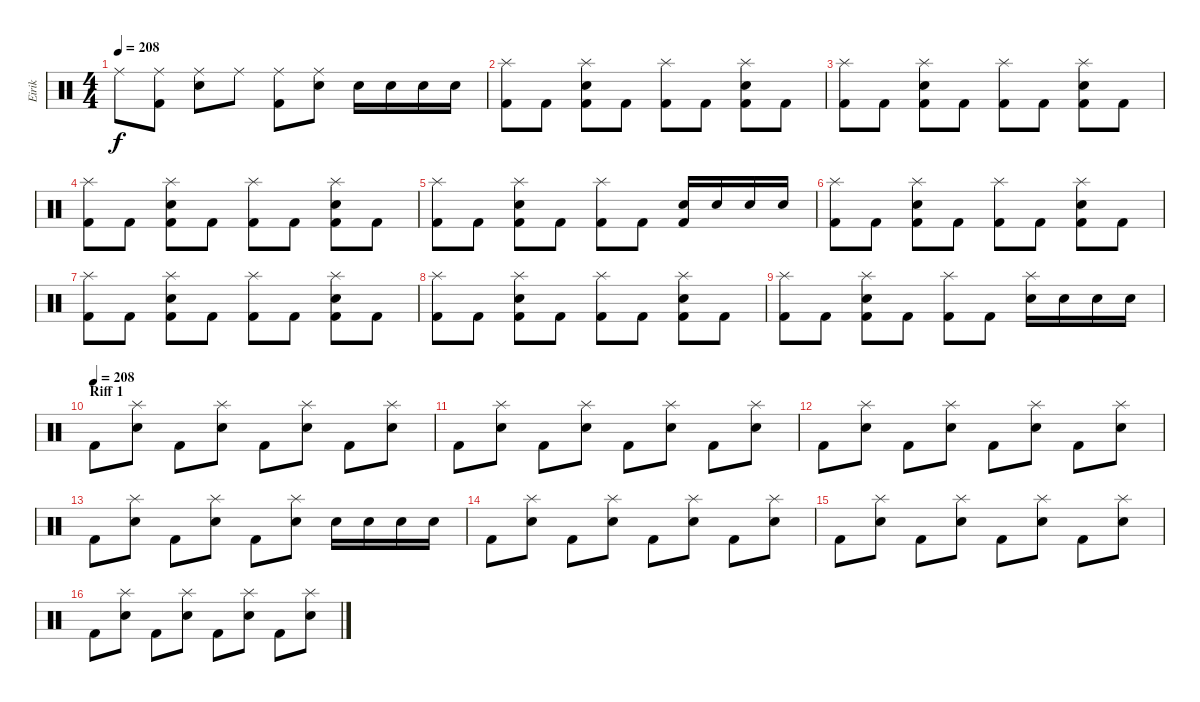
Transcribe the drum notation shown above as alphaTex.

\track ("Eirik" "Eirik") {instrument percussion}
\staff {score}
\articulation defaults
\ts (4 4)
\tempo 208
\clef neutral
\ks c "Ride (middle)".8{dy f}
("Ride (middle)" "Kick (hit) 2").8 ("Ride (middle)" "Snare (hit) 2").8 "Ride (middle)".8 ("Ride (middle)" "Kick (hit) 2").8 ("Ride (middle)" "Snare (hit) 2").8 "Snare (hit) 2".16 "Snare (hit) 2".16 "Snare (hit) 2".16 "Snare (hit) 2".16 |
("Splash (hit)" "Kick (hit) 2").8 "Kick (hit) 2".8 ("Splash (hit)" "Snare (hit) 2" "Kick (hit) 2").8 "Kick (hit) 2".8 ("Splash (hit)" "Kick (hit) 2").8 "Kick (hit) 2".8 ("Splash (hit)" "Snare (hit) 2" "Kick (hit) 2").8 "Kick (hit) 2".8 |
("Splash (hit)" "Kick (hit) 2").8 "Kick (hit) 2".8 ("Splash (hit)" "Snare (hit) 2" "Kick (hit) 2").8 "Kick (hit) 2".8 ("Splash (hit)" "Kick (hit) 2").8 "Kick (hit) 2".8 ("Splash (hit)" "Snare (hit) 2" "Kick (hit) 2").8 "Kick (hit) 2".8 |
("Splash (hit)" "Kick (hit) 2").8 "Kick (hit) 2".8 ("Splash (hit)" "Snare (hit) 2" "Kick (hit) 2").8 "Kick (hit) 2".8 ("Splash (hit)" "Kick (hit) 2").8 "Kick (hit) 2".8 ("Splash (hit)" "Snare (hit) 2" "Kick (hit) 2").8 "Kick (hit) 2".8 |
("Splash (hit)" "Kick (hit) 2").8 "Kick (hit) 2".8 ("Splash (hit)" "Snare (hit) 2" "Kick (hit) 2").8 "Kick (hit) 2".8 ("Splash (hit)" "Kick (hit) 2").8 "Kick (hit) 2".8 ("Snare (hit) 2" "Kick (hit) 2").16 "Snare (hit) 2".16 "Snare (hit) 2".16 "Snare (hit) 2".16 |
("Splash (hit)" "Kick (hit) 2").8 "Kick (hit) 2".8 ("Splash (hit)" "Snare (hit) 2" "Kick (hit) 2").8 "Kick (hit) 2".8 ("Splash (hit)" "Kick (hit) 2").8 "Kick (hit) 2".8 ("Splash (hit)" "Snare (hit) 2" "Kick (hit) 2").8 "Kick (hit) 2".8 |
("Splash (hit)" "Kick (hit) 2").8 "Kick (hit) 2".8 ("Splash (hit)" "Snare (hit) 2" "Kick (hit) 2").8 "Kick (hit) 2".8 ("Splash (hit)" "Kick (hit) 2").8 "Kick (hit) 2".8 ("Splash (hit)" "Snare (hit) 2" "Kick (hit) 2").8 "Kick (hit) 2".8 |
("Splash (hit)" "Kick (hit) 2").8 "Kick (hit) 2".8 ("Splash (hit)" "Snare (hit) 2" "Kick (hit) 2").8 "Kick (hit) 2".8 ("Splash (hit)" "Kick (hit) 2").8 "Kick (hit) 2".8 ("Splash (hit)" "Snare (hit) 2" "Kick (hit) 2").8 "Kick (hit) 2".8 |
("Splash (hit)" "Kick (hit) 2").8 "Kick (hit) 2".8 ("Splash (hit)" "Snare (hit) 2" "Kick (hit) 2").8 "Kick (hit) 2".8 ("Splash (hit)" "Kick (hit) 2").8 "Kick (hit) 2".8 ("Splash (hit)" "Snare (hit) 2").16 "Snare (hit) 2".16 "Snare (hit) 2".16 "Snare (hit) 2".16 |
\section ("" "Riff 1")
\tempo (208)
"Kick (hit) 2".8 ("Splash (hit)" "Snare (hit) 2").8 "Kick (hit) 2".8 ("Splash (hit)" "Snare (hit) 2").8 "Kick (hit) 2".8 ("Splash (hit)" "Snare (hit) 2").8 "Kick (hit) 2".8 ("Splash (hit)" "Snare (hit) 2").8 |
"Kick (hit) 2".8 ("Splash (hit)" "Snare (hit) 2").8 "Kick (hit) 2".8 ("Splash (hit)" "Snare (hit) 2").8 "Kick (hit) 2".8 ("Splash (hit)" "Snare (hit) 2").8 "Kick (hit) 2".8 ("Splash (hit)" "Snare (hit) 2").8 |
"Kick (hit) 2".8 ("Splash (hit)" "Snare (hit) 2").8 "Kick (hit) 2".8 ("Splash (hit)" "Snare (hit) 2").8 "Kick (hit) 2".8 ("Splash (hit)" "Snare (hit) 2").8 "Kick (hit) 2".8 ("Splash (hit)" "Snare (hit) 2").8 |
"Kick (hit) 2".8 ("Splash (hit)" "Snare (hit) 2").8 "Kick (hit) 2".8 ("Splash (hit)" "Snare (hit) 2").8 "Kick (hit) 2".8 ("Splash (hit)" "Snare (hit) 2").8 "Snare (hit) 2".16 "Snare (hit) 2".16 "Snare (hit) 2".16 "Snare (hit) 2".16 |
"Kick (hit) 2".8 ("Splash (hit)" "Snare (hit) 2").8 "Kick (hit) 2".8 ("Splash (hit)" "Snare (hit) 2").8 "Kick (hit) 2".8 ("Splash (hit)" "Snare (hit) 2").8 "Kick (hit) 2".8 ("Splash (hit)" "Snare (hit) 2").8 |
"Kick (hit) 2".8 ("Splash (hit)" "Snare (hit) 2").8 "Kick (hit) 2".8 ("Splash (hit)" "Snare (hit) 2").8 "Kick (hit) 2".8 ("Splash (hit)" "Snare (hit) 2").8 "Kick (hit) 2".8 ("Splash (hit)" "Snare (hit) 2").8 |
"Kick (hit) 2".8 ("Splash (hit)" "Snare (hit) 2").8 "Kick (hit) 2".8 ("Splash (hit)" "Snare (hit) 2").8 "Kick (hit) 2".8 ("Splash (hit)" "Snare (hit) 2").8 "Kick (hit) 2".8 ("Splash (hit)" "Snare (hit) 2").8
